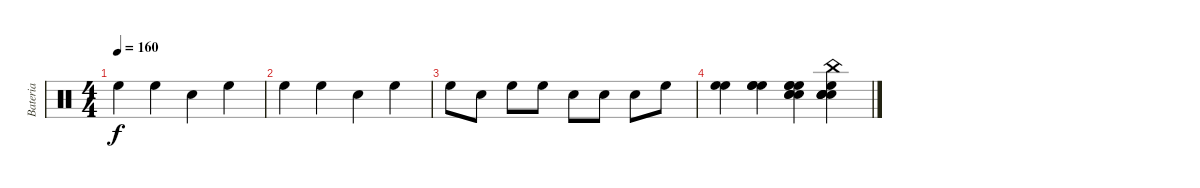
\track ("Bateria" "Bateria") {instrument percussion}
\staff {score}
\articulation defaults
\ts (4 4)
\tempo 160
\clef neutral
\ks c "High Floor Tom (hit)".4{dy f} "High Floor Tom (hit)".4 "Snare (hit) 2".4 "High Floor Tom (hit)".4
|
"High Floor Tom (hit)".4 "High Floor Tom (hit)".4 "Snare (hit) 2".4 "High Floor Tom (hit)".4 |
"High Floor Tom (hit)".8 "Snare (hit) 2".8 "High Floor Tom (hit)".8 "High Floor Tom (hit)".8 "Snare (hit) 2".8 "Snare (hit) 2".8 "Snare (hit) 2".8 "High Floor Tom (hit)".8 |
("High Floor Tom (hit)" "High Floor Tom (hit)").4 ("High Floor Tom (hit)" "High Floor Tom (hit)" "High Floor Tom (hit)").4 ("Snare (hit) 2" "Snare (hit) 2" "Snare (hit) 2" "High Floor Tom (hit)" "High Floor Tom (hit)" "High Floor Tom (hit)").4 ("China (hit)" "Snare (hit) 2" "Snare (hit) 2" "Snare (hit) 2" "Snare (hit) 2" "High Floor Tom (hit)").4
